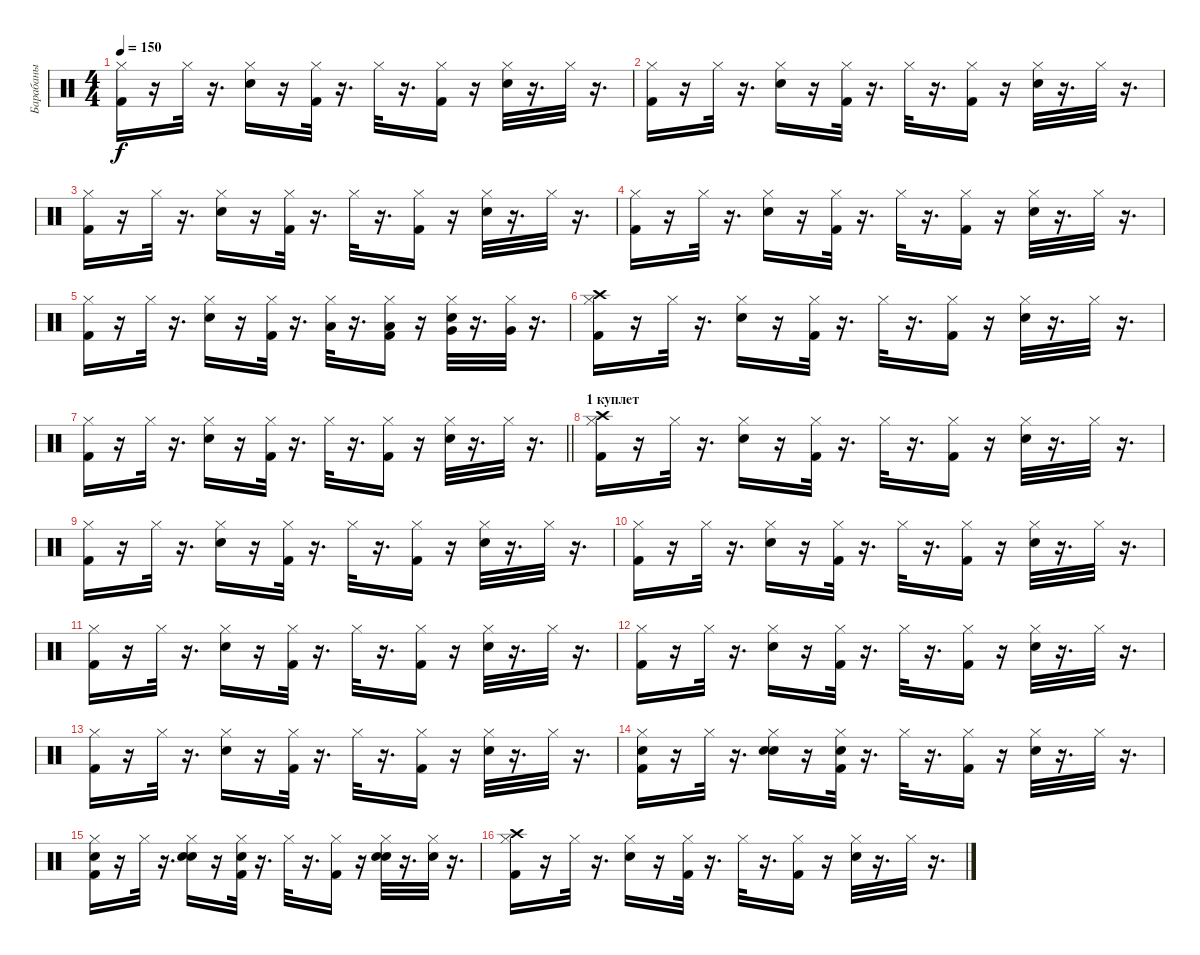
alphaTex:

\track ("Барабаны" "Барабаны") {instrument percussion}
\staff {score}
\articulation defaults
\ts (4 4)
\tempo 150
\clef neutral
\ks c
("Kick (hit) 2" "Hi-Hat (closed)").16{dy f} r.16 "Hi-Hat (closed)".32 r.16{d} ("Electric Snare (hit)" "Hi-Hat (closed)").16 r.16 ("Kick (hit) 2" "Hi-Hat (closed)").32 r.16{d} "Hi-Hat (closed)".32 r.16{d} ("Kick (hit) 2" "Hi-Hat (closed)").16 r.16 ("Electric Snare (hit)" "Hi-Hat (closed)").32 r.16{d} "Hi-Hat (closed)".32 r.16{d} |
("Hi-Hat (closed)" "Kick (hit) 2").16 r.16 "Hi-Hat (closed)".32 r.16{d} ("Electric Snare (hit)" "Hi-Hat (closed)").16 r.16 ("Hi-Hat (closed)" "Kick (hit) 2").32 r.16{d} "Hi-Hat (closed)".32 r.16{d} ("Hi-Hat (closed)" "Kick (hit) 2").16 r.16 ("Hi-Hat (closed)" "Electric Snare (hit)").32 r.16{d} "Hi-Hat (closed)".32 r.16{d} |
("Kick (hit) 2" "Hi-Hat (closed)").16 r.16 "Hi-Hat (closed)".32 r.16{d} ("Electric Snare (hit)" "Hi-Hat (closed)").16 r.16 ("Kick (hit) 2" "Hi-Hat (closed)").32 r.16{d} "Hi-Hat (closed)".32 r.16{d} ("Kick (hit) 2" "Hi-Hat (closed)").16 r.16 ("Electric Snare (hit)" "Hi-Hat (closed)").32 r.16{d} "Hi-Hat (closed)".32 r.16{d} |
("Hi-Hat (closed)" "Kick (hit) 2").16 r.16 "Hi-Hat (closed)".32 r.16{d} ("Electric Snare (hit)" "Hi-Hat (closed)").16 r.16 ("Kick (hit) 2" "Hi-Hat (closed)").32 r.16{d} "Hi-Hat (closed)".32 r.16{d} ("Kick (hit) 2" "Hi-Hat (closed)").16 r.16 ("Electric Snare (hit)" "Hi-Hat (closed)").32 r.16{d} "Hi-Hat (closed)".32 r.16{d} |
("Kick (hit) 2" "Hi-Hat (closed)").16 r.16 "Hi-Hat (closed)".32 r.16{d} ("Electric Snare (hit)" "Hi-Hat (closed)").16 r.16 ("Kick (hit) 2" "Hi-Hat (closed)").32 r.16{d} ("Low Tom (hit)" "Hi-Hat (closed)").32 r.16{d} ("Kick (hit) 2" "Low Tom (hit)" "Hi-Hat (closed)").16 r.16 ("Electric Snare (hit)" "Very Low Tom (hit)" "Hi-Hat (closed)").32 r.16{d} ("Very Low Tom (hit)" "Hi-Hat (closed)").32 r.16{d} |
("Crash high (hit)" "Hi-Hat (closed)" "Kick (hit) 2").16 r.16 "Hi-Hat (closed)".32 r.16{d} ("Electric Snare (hit)" "Hi-Hat (closed)").16 r.16 ("Kick (hit) 2" "Hi-Hat (closed)").32 r.16{d} "Hi-Hat (closed)".32 r.16{d} ("Kick (hit) 2" "Hi-Hat (closed)").16 r.16 ("Electric Snare (hit)" "Hi-Hat (closed)").32 r.16{d} "Hi-Hat (closed)".32 r.16{d} |
\barLineRight lightlight
("Kick (hit) 2" "Hi-Hat (closed)").16 r.16 "Hi-Hat (closed)".32 r.16{d} ("Electric Snare (hit)" "Hi-Hat (closed)").16 r.16 ("Kick (hit) 2" "Hi-Hat (closed)").32 r.16{d} "Hi-Hat (closed)".32 r.16{d} ("Kick (hit) 2" "Hi-Hat (closed)").16 r.16 ("Electric Snare (hit)" "Hi-Hat (closed)").32 r.16{d} "Hi-Hat (closed)".32 r.16{d} |
\section ("" "1 куплет")
("Crash high (hit)" "Hi-Hat (closed)" "Kick (hit) 2").16 r.16 "Hi-Hat (closed)".32 r.16{d} ("Hi-Hat (closed)" "Electric Snare (hit)").16 r.16 ("Hi-Hat (closed)" "Kick (hit) 2").32 r.16{d} "Hi-Hat (closed)".32 r.16{d} ("Kick (hit) 2" "Hi-Hat (closed)").16 r.16 ("Electric Snare (hit)" "Hi-Hat (closed)").32 r.16{d} "Hi-Hat (closed)".32 r.16{d} |
("Kick (hit) 2" "Hi-Hat (closed)").16 r.16 "Hi-Hat (closed)".32 r.16{d} ("Electric Snare (hit)" "Hi-Hat (closed)").16 r.16 ("Kick (hit) 2" "Hi-Hat (closed)").32 r.16{d} "Hi-Hat (closed)".32 r.16{d} ("Kick (hit) 2" "Hi-Hat (closed)").16 r.16 ("Electric Snare (hit)" "Hi-Hat (closed)").32 r.16{d} "Hi-Hat (closed)".32 r.16{d} |
("Hi-Hat (closed)" "Kick (hit) 2").16 r.16 "Hi-Hat (closed)".32 r.16{d} ("Electric Snare (hit)" "Hi-Hat (closed)").16 r.16 ("Kick (hit) 2" "Hi-Hat (closed)").32 r.16{d} "Hi-Hat (closed)".32 r.16{d} ("Kick (hit) 2" "Hi-Hat (closed)").16 r.16 ("Electric Snare (hit)" "Hi-Hat (closed)").32 r.16{d} "Hi-Hat (closed)".32 r.16{d} |
("Kick (hit) 2" "Hi-Hat (closed)").16 r.16 "Hi-Hat (closed)".32 r.16{d} ("Electric Snare (hit)" "Hi-Hat (closed)").16 r.16 ("Kick (hit) 2" "Hi-Hat (closed)").32 r.16{d} "Hi-Hat (closed)".32 r.16{d} ("Kick (hit) 2" "Hi-Hat (closed)").16 r.16 ("Electric Snare (hit)" "Hi-Hat (closed)").32 r.16{d} "Hi-Hat (closed)".32 r.16{d} |
("Hi-Hat (closed)" "Kick (hit) 2").16 r.16 "Hi-Hat (closed)".32 r.16{d} ("Hi-Hat (closed)" "Electric Snare (hit)").16 r.16 ("Kick (hit) 2" "Hi-Hat (closed)").32 r.16{d} "Hi-Hat (closed)".32 r.16{d} ("Hi-Hat (closed)" "Kick (hit) 2").16 r.16 ("Electric Snare (hit)" "Hi-Hat (closed)").32 r.16{d} "Hi-Hat (closed)".32 r.16{d} |
("Hi-Hat (closed)" "Kick (hit) 2").16 r.16 "Hi-Hat (closed)".32 r.16{d} ("Electric Snare (hit)" "Hi-Hat (closed)").16 r.16 ("Kick (hit) 2" "Hi-Hat (closed)").32 r.16{d} "Hi-Hat (closed)".32 r.16{d} ("Kick (hit) 2" "Hi-Hat (closed)").16 r.16 ("Electric Snare (hit)" "Hi-Hat (closed)").32 r.16{d} "Hi-Hat (closed)".32 r.16{d} |
("Kick (hit) 2" "Hand Clap (hit)" "Hi-Hat (closed)").16 r.16 "Hi-Hat (closed)".32 r.16{d} ("Electric Snare (hit)" "Hand Clap (hit)" "Hi-Hat (closed)").16 r.16 ("Kick (hit) 2" "Hi-Hat (closed)" "Hand Clap (hit)").32 r.16{d} "Hi-Hat (closed)".32 r.16{d} ("Kick (hit) 2" "Hi-Hat (closed)").16 r.16 ("Electric Snare (hit)" "Hi-Hat (closed)").32 r.16{d} "Hi-Hat (closed)".32 r.16{d} |
("Hand Clap (hit)" "Kick (hit) 2" "Hi-Hat (closed)").16 r.16 "Hi-Hat (closed)".32 r.16{d} ("Electric Snare (hit)" "Hand Clap (hit)" "Hi-Hat (closed)").16 r.16 ("Kick (hit) 2" "Hi-Hat (closed)" "Hand Clap (hit)").32 r.16{d} "Hi-Hat (closed)".32 r.16{d} ("Kick (hit) 2" "Hi-Hat (closed)").16 r.16 ("Electric Snare (hit)" "Hand Clap (hit)" "Hi-Hat (closed)").32 r.16{d} ("Hi-Hat (closed)" "Hand Clap (hit)").32 r.16{d} |
("Hi-Hat (closed)" "Crash high (hit)" "Kick (hit) 2").16 r.16 "Hi-Hat (closed)".32 r.16{d} ("Electric Snare (hit)" "Hi-Hat (closed)").16 r.16 ("Hi-Hat (closed)" "Kick (hit) 2").32 r.16{d} "Hi-Hat (closed)".32 r.16{d} ("Kick (hit) 2" "Hi-Hat (closed)").16 r.16 ("Electric Snare (hit)" "Hi-Hat (closed)").32 r.16{d} "Hi-Hat (closed)".32 r.16{d}
